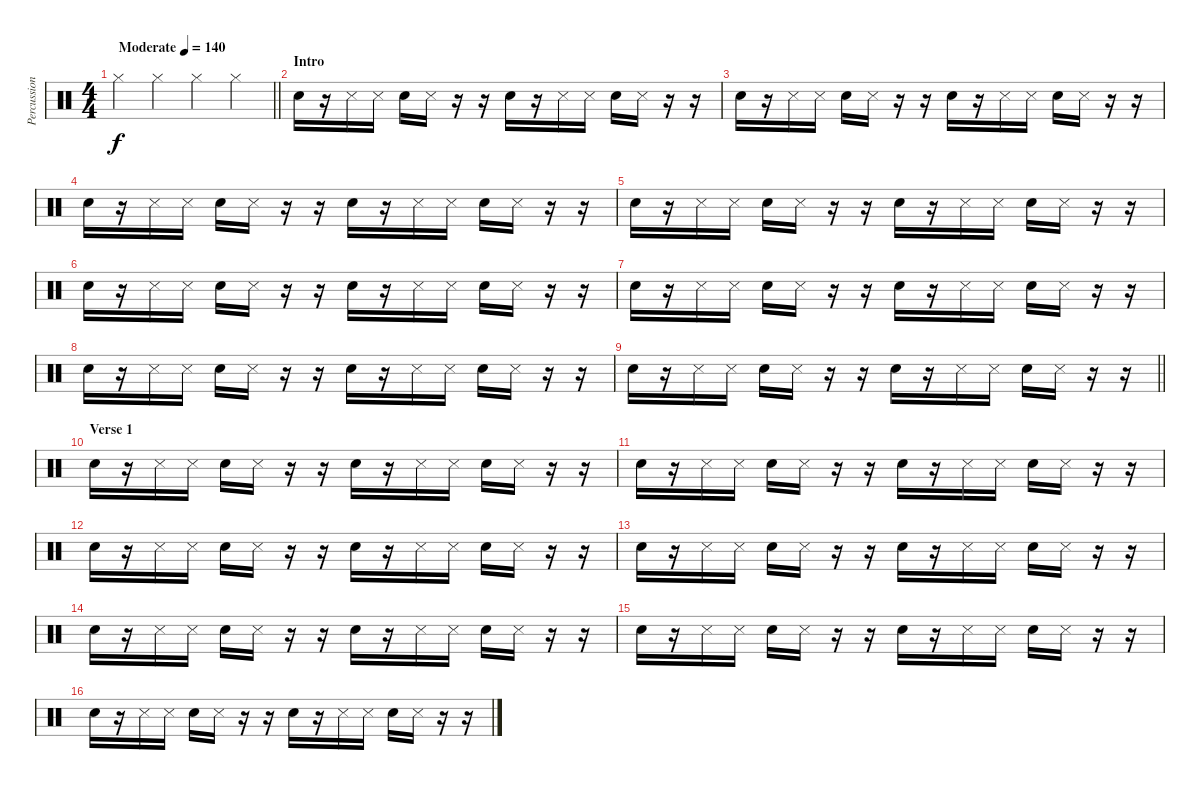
\track ("Percussion" "Percussion") {instrument percussion}
\staff {score}
\articulation defaults
\ts (4 4)
\tempo (140 "Moderate")
\clef neutral
\barLineRight lightlight
\ks c "Hi-Hat (closed)".4{dy f} "Hi-Hat (closed)".4 "Hi-Hat (closed)".4 "Hi-Hat (closed)".4
|
\section ("" "Intro")
"Snare (hit) 2".16 r.16 "Snare (side stick) 3".16 "Snare (side stick) 3".16 "Snare (hit) 2".16 "Snare (side stick) 3".16 r.16 r.16 "Snare (hit) 2".16 r.16 "Snare (side stick) 3".16 "Snare (side stick) 3".16 "Snare (hit) 2".16 "Snare (side stick) 3".16 r.16 r.16 |
"Snare (hit) 2".16 r.16 "Snare (side stick) 3".16 "Snare (side stick) 3".16 "Snare (hit) 2".16 "Snare (side stick) 3".16 r.16 r.16 "Snare (hit) 2".16 r.16 "Snare (side stick) 3".16 "Snare (side stick) 3".16 "Snare (hit) 2".16 "Snare (side stick) 3".16 r.16 r.16 |
"Snare (hit) 2".16 r.16 "Snare (side stick) 3".16 "Snare (side stick) 3".16 "Snare (hit) 2".16 "Snare (side stick) 3".16 r.16 r.16 "Snare (hit) 2".16 r.16 "Snare (side stick) 3".16 "Snare (side stick) 3".16 "Snare (hit) 2".16 "Snare (side stick) 3".16 r.16 r.16 |
"Snare (hit) 2".16 r.16 "Snare (side stick) 3".16 "Snare (side stick) 3".16 "Snare (hit) 2".16 "Snare (side stick) 3".16 r.16 r.16 "Snare (hit) 2".16 r.16 "Snare (side stick) 3".16 "Snare (side stick) 3".16 "Snare (hit) 2".16 "Snare (side stick) 3".16 r.16 r.16 |
"Snare (hit) 2".16 r.16 "Snare (side stick) 3".16 "Snare (side stick) 3".16 "Snare (hit) 2".16 "Snare (side stick) 3".16 r.16 r.16 "Snare (hit) 2".16 r.16 "Snare (side stick) 3".16 "Snare (side stick) 3".16 "Snare (hit) 2".16 "Snare (side stick) 3".16 r.16 r.16 |
"Snare (hit) 2".16 r.16 "Snare (side stick) 3".16 "Snare (side stick) 3".16 "Snare (hit) 2".16 "Snare (side stick) 3".16 r.16 r.16 "Snare (hit) 2".16 r.16 "Snare (side stick) 3".16 "Snare (side stick) 3".16 "Snare (hit) 2".16 "Snare (side stick) 3".16 r.16 r.16 |
"Snare (hit) 2".16 r.16 "Snare (side stick) 3".16 "Snare (side stick) 3".16 "Snare (hit) 2".16 "Snare (side stick) 3".16 r.16 r.16 "Snare (hit) 2".16 r.16 "Snare (side stick) 3".16 "Snare (side stick) 3".16 "Snare (hit) 2".16 "Snare (side stick) 3".16 r.16 r.16 |
\barLineRight lightlight "Snare (hit) 2".16
r.16 "Snare (side stick) 3".16 "Snare (side stick) 3".16 "Snare (hit) 2".16 "Snare (side stick) 3".16 r.16 r.16 "Snare (hit) 2".16 r.16 "Snare (side stick) 3".16 "Snare (side stick) 3".16 "Snare (hit) 2".16 "Snare (side stick) 3".16 r.16 r.16 |
\section ("" "Verse 1")
"Snare (hit) 2".16 r.16 "Snare (side stick) 3".16 "Snare (side stick) 3".16 "Snare (hit) 2".16 "Snare (side stick) 3".16 r.16 r.16 "Snare (hit) 2".16 r.16 "Snare (side stick) 3".16 "Snare (side stick) 3".16 "Snare (hit) 2".16 "Snare (side stick) 3".16 r.16 r.16 |
"Snare (hit) 2".16 r.16 "Snare (side stick) 3".16 "Snare (side stick) 3".16 "Snare (hit) 2".16 "Snare (side stick) 3".16 r.16 r.16 "Snare (hit) 2".16 r.16 "Snare (side stick) 3".16 "Snare (side stick) 3".16 "Snare (hit) 2".16 "Snare (side stick) 3".16 r.16 r.16 |
"Snare (hit) 2".16 r.16 "Snare (side stick) 3".16 "Snare (side stick) 3".16 "Snare (hit) 2".16 "Snare (side stick) 3".16 r.16 r.16 "Snare (hit) 2".16 r.16 "Snare (side stick) 3".16 "Snare (side stick) 3".16 "Snare (hit) 2".16 "Snare (side stick) 3".16 r.16 r.16 |
"Snare (hit) 2".16 r.16 "Snare (side stick) 3".16 "Snare (side stick) 3".16 "Snare (hit) 2".16 "Snare (side stick) 3".16 r.16 r.16 "Snare (hit) 2".16 r.16 "Snare (side stick) 3".16 "Snare (side stick) 3".16 "Snare (hit) 2".16 "Snare (side stick) 3".16 r.16 r.16 |
"Snare (hit) 2".16 r.16 "Snare (side stick) 3".16 "Snare (side stick) 3".16 "Snare (hit) 2".16 "Snare (side stick) 3".16 r.16 r.16 "Snare (hit) 2".16 r.16 "Snare (side stick) 3".16 "Snare (side stick) 3".16 "Snare (hit) 2".16 "Snare (side stick) 3".16 r.16 r.16 |
"Snare (hit) 2".16 r.16 "Snare (side stick) 3".16 "Snare (side stick) 3".16 "Snare (hit) 2".16 "Snare (side stick) 3".16 r.16 r.16 "Snare (hit) 2".16 r.16 "Snare (side stick) 3".16 "Snare (side stick) 3".16 "Snare (hit) 2".16 "Snare (side stick) 3".16 r.16 r.16 |
"Snare (hit) 2".16 r.16 "Snare (side stick) 3".16 "Snare (side stick) 3".16 "Snare (hit) 2".16 "Snare (side stick) 3".16 r.16 r.16 "Snare (hit) 2".16 r.16 "Snare (side stick) 3".16 "Snare (side stick) 3".16 "Snare (hit) 2".16 "Snare (side stick) 3".16 r.16 r.16
